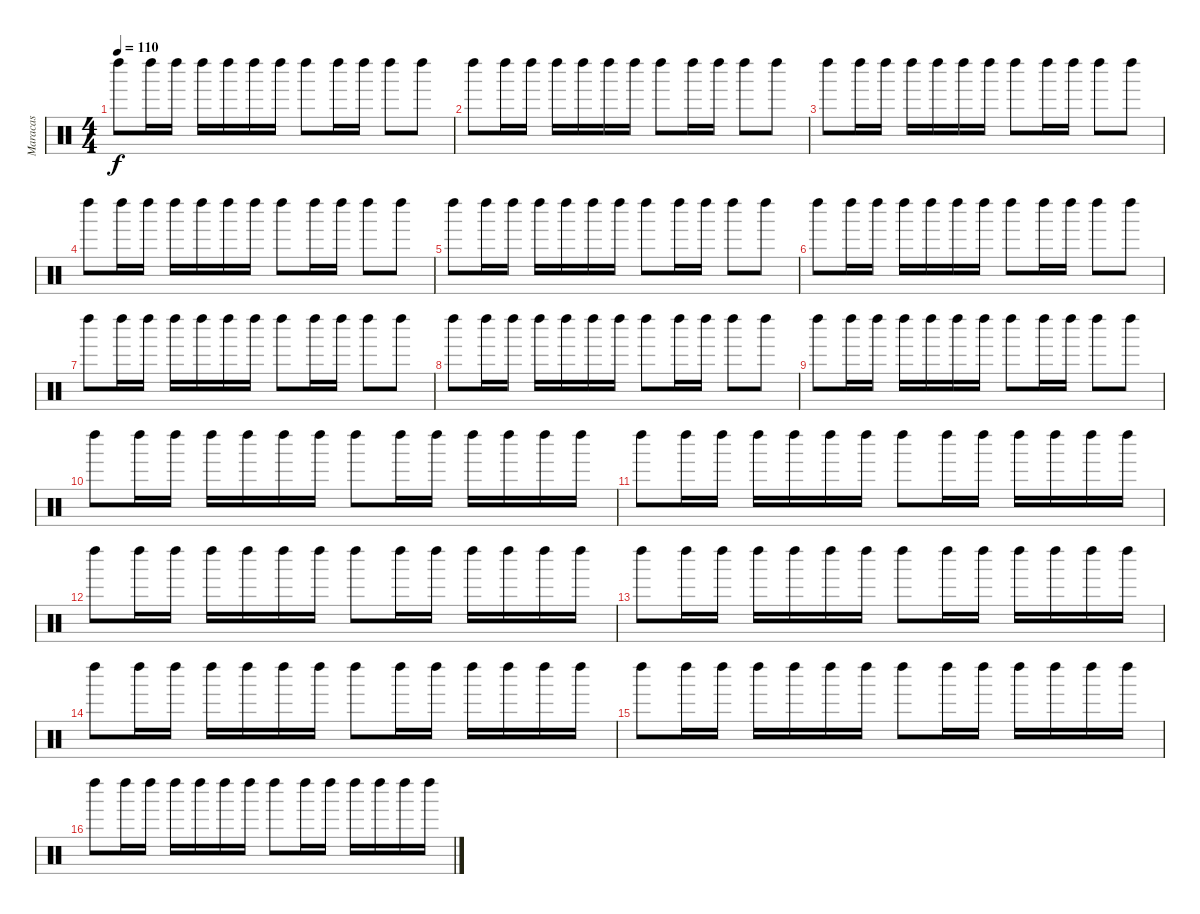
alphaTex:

\track ("Maracas" "Maracas") {instrument percussion}
\staff {score}
\articulation defaults
\ts (4 4)
\tempo 110
\clef neutral
\ks c "Left Maraca (hit)".8{dy f} "Left Maraca (hit)".16 "Left Maraca (hit)".16 "Left Maraca (hit)".16 "Left Maraca (hit)".16 "Left Maraca (hit)".16 "Left Maraca (hit)".16 "Left Maraca (hit)".8 "Left Maraca (hit)".16 "Left Maraca (hit)".16 "Left Maraca (hit)".8 "Left Maraca (hit)".8
|
"Left Maraca (hit)".8 "Left Maraca (hit)".16 "Left Maraca (hit)".16 "Left Maraca (hit)".16 "Left Maraca (hit)".16 "Left Maraca (hit)".16 "Left Maraca (hit)".16 "Left Maraca (hit)".8 "Left Maraca (hit)".16 "Left Maraca (hit)".16 "Left Maraca (hit)".8 "Left Maraca (hit)".8 |
"Left Maraca (hit)".8 "Left Maraca (hit)".16 "Left Maraca (hit)".16 "Left Maraca (hit)".16 "Left Maraca (hit)".16 "Left Maraca (hit)".16 "Left Maraca (hit)".16 "Left Maraca (hit)".8 "Left Maraca (hit)".16 "Left Maraca (hit)".16 "Left Maraca (hit)".8 "Left Maraca (hit)".8 |
"Left Maraca (hit)".8 "Left Maraca (hit)".16 "Left Maraca (hit)".16 "Left Maraca (hit)".16 "Left Maraca (hit)".16 "Left Maraca (hit)".16 "Left Maraca (hit)".16 "Left Maraca (hit)".8 "Left Maraca (hit)".16 "Left Maraca (hit)".16 "Left Maraca (hit)".8 "Left Maraca (hit)".8 |
"Left Maraca (hit)".8 "Left Maraca (hit)".16 "Left Maraca (hit)".16 "Left Maraca (hit)".16 "Left Maraca (hit)".16 "Left Maraca (hit)".16 "Left Maraca (hit)".16 "Left Maraca (hit)".8 "Left Maraca (hit)".16 "Left Maraca (hit)".16 "Left Maraca (hit)".8 "Left Maraca (hit)".8 |
"Left Maraca (hit)".8 "Left Maraca (hit)".16 "Left Maraca (hit)".16 "Left Maraca (hit)".16 "Left Maraca (hit)".16 "Left Maraca (hit)".16 "Left Maraca (hit)".16 "Left Maraca (hit)".8 "Left Maraca (hit)".16 "Left Maraca (hit)".16 "Left Maraca (hit)".8 "Left Maraca (hit)".8 |
"Left Maraca (hit)".8 "Left Maraca (hit)".16 "Left Maraca (hit)".16 "Left Maraca (hit)".16 "Left Maraca (hit)".16 "Left Maraca (hit)".16 "Left Maraca (hit)".16 "Left Maraca (hit)".8 "Left Maraca (hit)".16 "Left Maraca (hit)".16 "Left Maraca (hit)".8 "Left Maraca (hit)".8 |
"Left Maraca (hit)".8 "Left Maraca (hit)".16 "Left Maraca (hit)".16 "Left Maraca (hit)".16 "Left Maraca (hit)".16 "Left Maraca (hit)".16 "Left Maraca (hit)".16 "Left Maraca (hit)".8 "Left Maraca (hit)".16 "Left Maraca (hit)".16 "Left Maraca (hit)".8 "Left Maraca (hit)".8 |
"Left Maraca (hit)".8 "Left Maraca (hit)".16 "Left Maraca (hit)".16 "Left Maraca (hit)".16 "Left Maraca (hit)".16 "Left Maraca (hit)".16 "Left Maraca (hit)".16 "Left Maraca (hit)".8 "Left Maraca (hit)".16 "Left Maraca (hit)".16 "Left Maraca (hit)".8 "Left Maraca (hit)".8 |
"Left Maraca (hit)".8 "Left Maraca (hit)".16 "Left Maraca (hit)".16 "Left Maraca (hit)".16 "Left Maraca (hit)".16 "Left Maraca (hit)".16 "Left Maraca (hit)".16 "Left Maraca (hit)".8 "Left Maraca (hit)".16 "Left Maraca (hit)".16 "Left Maraca (hit)".16 "Left Maraca (hit)".16 "Left Maraca (hit)".16 "Left Maraca (hit)".16 |
"Left Maraca (hit)".8 "Left Maraca (hit)".16 "Left Maraca (hit)".16 "Left Maraca (hit)".16 "Left Maraca (hit)".16 "Left Maraca (hit)".16 "Left Maraca (hit)".16 "Left Maraca (hit)".8 "Left Maraca (hit)".16 "Left Maraca (hit)".16 "Left Maraca (hit)".16 "Left Maraca (hit)".16 "Left Maraca (hit)".16 "Left Maraca (hit)".16 |
"Left Maraca (hit)".8 "Left Maraca (hit)".16 "Left Maraca (hit)".16 "Left Maraca (hit)".16 "Left Maraca (hit)".16 "Left Maraca (hit)".16 "Left Maraca (hit)".16 "Left Maraca (hit)".8 "Left Maraca (hit)".16 "Left Maraca (hit)".16 "Left Maraca (hit)".16 "Left Maraca (hit)".16 "Left Maraca (hit)".16 "Left Maraca (hit)".16 |
"Left Maraca (hit)".8 "Left Maraca (hit)".16 "Left Maraca (hit)".16 "Left Maraca (hit)".16 "Left Maraca (hit)".16 "Left Maraca (hit)".16 "Left Maraca (hit)".16 "Left Maraca (hit)".8 "Left Maraca (hit)".16 "Left Maraca (hit)".16 "Left Maraca (hit)".16 "Left Maraca (hit)".16 "Left Maraca (hit)".16 "Left Maraca (hit)".16 |
"Left Maraca (hit)".8 "Left Maraca (hit)".16 "Left Maraca (hit)".16 "Left Maraca (hit)".16 "Left Maraca (hit)".16 "Left Maraca (hit)".16 "Left Maraca (hit)".16 "Left Maraca (hit)".8 "Left Maraca (hit)".16 "Left Maraca (hit)".16 "Left Maraca (hit)".16 "Left Maraca (hit)".16 "Left Maraca (hit)".16 "Left Maraca (hit)".16 |
"Left Maraca (hit)".8 "Left Maraca (hit)".16 "Left Maraca (hit)".16 "Left Maraca (hit)".16 "Left Maraca (hit)".16 "Left Maraca (hit)".16 "Left Maraca (hit)".16 "Left Maraca (hit)".8 "Left Maraca (hit)".16 "Left Maraca (hit)".16 "Left Maraca (hit)".16 "Left Maraca (hit)".16 "Left Maraca (hit)".16 "Left Maraca (hit)".16 |
"Left Maraca (hit)".8 "Left Maraca (hit)".16 "Left Maraca (hit)".16 "Left Maraca (hit)".16 "Left Maraca (hit)".16 "Left Maraca (hit)".16 "Left Maraca (hit)".16 "Left Maraca (hit)".8 "Left Maraca (hit)".16 "Left Maraca (hit)".16 "Left Maraca (hit)".16 "Left Maraca (hit)".16 "Left Maraca (hit)".16 "Left Maraca (hit)".16
